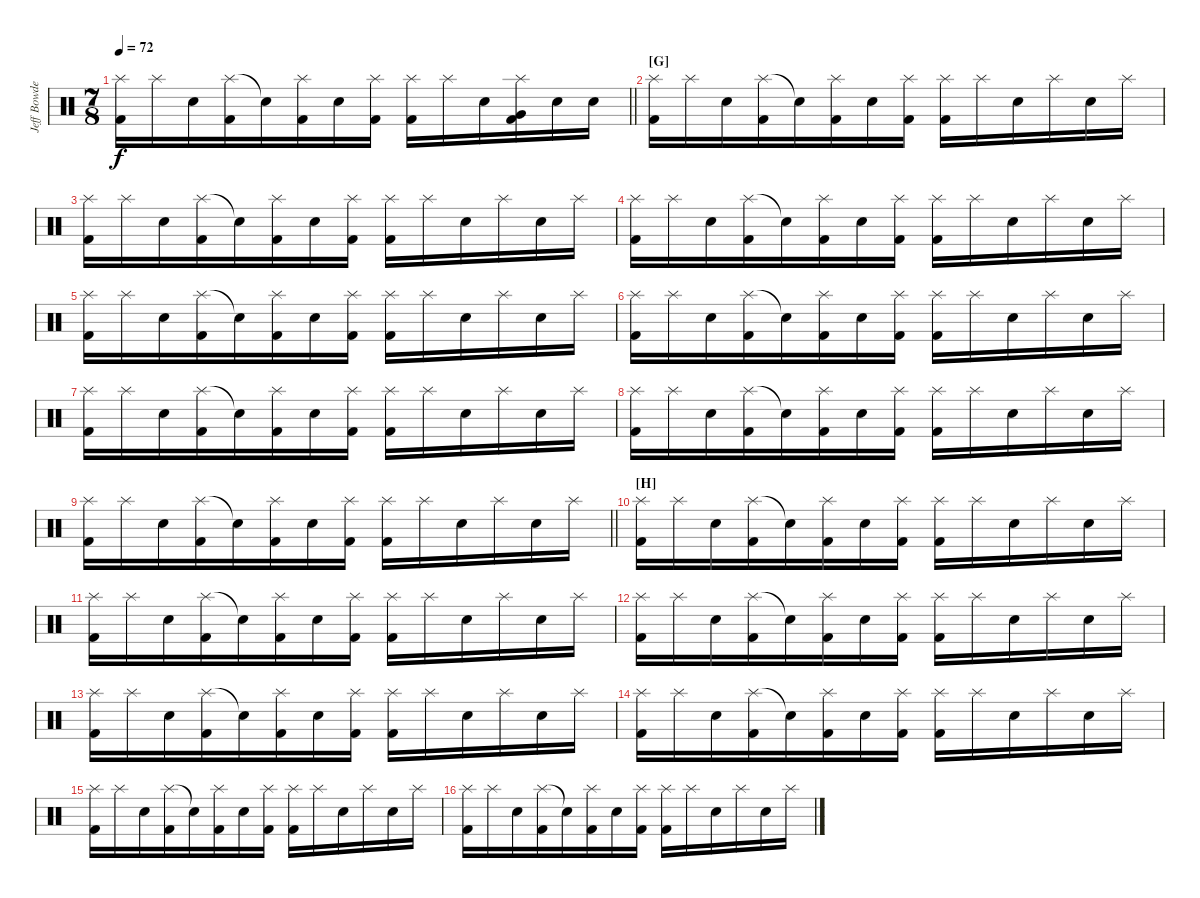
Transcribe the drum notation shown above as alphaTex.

\track ("Jeff Bowders" "Jeff Bowde") {instrument percussion}
\staff {score}
\articulation defaults
\ts (7 8)
\tempo 72
\clef neutral
\barLineRight lightlight
\ks aminor
("Splash (hit)" "Kick (hit) 2").16{dy f} "Splash (hit)".16 "Electric Snare (hit)".16 ("Splash (hit)" "Kick (hit) 2").16 "Snare (hit)"{t}.16 ("Splash (hit)" "Kick (hit) 2").16 "Electric Snare (hit)".16 ("Splash (hit)" "Kick (hit) 2").16 ("Splash (hit)" "Kick (hit) 2").16 "Splash (hit)".16 "Electric Snare (hit)".16 ("Splash (hit)" "Very Low Tom (hit)" "Kick (hit) 2").16 "Electric Snare (hit)".16 "Electric Snare (hit)".16 |
\section ("" "[G]")
("Splash (hit)" "Kick (hit) 2").16 "Splash (hit)".16 "Electric Snare (hit)".16 ("Splash (hit)" "Kick (hit) 2").16 "Snare (hit)"{t}.16 ("Splash (hit)" "Kick (hit) 2").16 "Electric Snare (hit)".16 ("Splash (hit)" "Kick (hit) 2").16 ("Splash (hit)" "Kick (hit) 2").16 "Splash (hit)".16 "Electric Snare (hit)".16 "Splash (hit)".16 "Electric Snare (hit)".16 "Splash (hit)".16 |
("Splash (hit)" "Kick (hit) 2").16 "Splash (hit)".16 "Electric Snare (hit)".16 ("Splash (hit)" "Kick (hit) 2").16 "Snare (hit)"{t}.16 ("Splash (hit)" "Kick (hit) 2").16 "Electric Snare (hit)".16 ("Splash (hit)" "Kick (hit) 2").16 ("Splash (hit)" "Kick (hit) 2").16 "Splash (hit)".16 "Electric Snare (hit)".16 "Splash (hit)".16 "Electric Snare (hit)".16 "Splash (hit)".16 |
("Splash (hit)" "Kick (hit) 2").16 "Splash (hit)".16 "Electric Snare (hit)".16 ("Splash (hit)" "Kick (hit) 2").16 "Snare (hit)"{t}.16 ("Splash (hit)" "Kick (hit) 2").16 "Electric Snare (hit)".16 ("Splash (hit)" "Kick (hit) 2").16 ("Splash (hit)" "Kick (hit) 2").16 "Splash (hit)".16 "Electric Snare (hit)".16 "Splash (hit)".16 "Electric Snare (hit)".16 "Splash (hit)".16 |
("Splash (hit)" "Kick (hit) 2").16 "Splash (hit)".16 "Electric Snare (hit)".16 ("Splash (hit)" "Kick (hit) 2").16 "Snare (hit)"{t}.16 ("Splash (hit)" "Kick (hit) 2").16 "Electric Snare (hit)".16 ("Splash (hit)" "Kick (hit) 2").16 ("Splash (hit)" "Kick (hit) 2").16 "Splash (hit)".16 "Electric Snare (hit)".16 "Splash (hit)".16 "Electric Snare (hit)".16 "Splash (hit)".16 |
("Splash (hit)" "Kick (hit) 2").16 "Splash (hit)".16 "Electric Snare (hit)".16 ("Splash (hit)" "Kick (hit) 2").16 "Snare (hit)"{t}.16 ("Splash (hit)" "Kick (hit) 2").16 "Electric Snare (hit)".16 ("Splash (hit)" "Kick (hit) 2").16 ("Splash (hit)" "Kick (hit) 2").16 "Splash (hit)".16 "Electric Snare (hit)".16 "Splash (hit)".16 "Electric Snare (hit)".16 "Splash (hit)".16 |
("Splash (hit)" "Kick (hit) 2").16 "Splash (hit)".16 "Electric Snare (hit)".16 ("Splash (hit)" "Kick (hit) 2").16 "Snare (hit)"{t}.16 ("Splash (hit)" "Kick (hit) 2").16 "Electric Snare (hit)".16 ("Splash (hit)" "Kick (hit) 2").16 ("Splash (hit)" "Kick (hit) 2").16 "Splash (hit)".16 "Electric Snare (hit)".16 "Splash (hit)".16 "Electric Snare (hit)".16 "Splash (hit)".16 |
("Splash (hit)" "Kick (hit) 2").16 "Splash (hit)".16 "Electric Snare (hit)".16 ("Splash (hit)" "Kick (hit) 2").16 "Snare (hit)"{t}.16 ("Splash (hit)" "Kick (hit) 2").16 "Electric Snare (hit)".16 ("Splash (hit)" "Kick (hit) 2").16 ("Splash (hit)" "Kick (hit) 2").16 "Splash (hit)".16 "Electric Snare (hit)".16 "Splash (hit)".16 "Electric Snare (hit)".16 "Splash (hit)".16 |
\barLineRight lightlight
("Splash (hit)" "Kick (hit) 2").16 "Splash (hit)".16 "Electric Snare (hit)".16 ("Splash (hit)" "Kick (hit) 2").16 "Snare (hit)"{t}.16 ("Splash (hit)" "Kick (hit) 2").16 "Electric Snare (hit)".16 ("Splash (hit)" "Kick (hit) 2").16 ("Splash (hit)" "Kick (hit) 2").16 "Splash (hit)".16 "Electric Snare (hit)".16 "Splash (hit)".16 "Electric Snare (hit)".16 "Splash (hit)".16 |
\section ("" "[H]")
("Splash (hit)" "Kick (hit) 2").16 "Splash (hit)".16 "Electric Snare (hit)".16 ("Splash (hit)" "Kick (hit) 2").16 "Snare (hit)"{t}.16 ("Splash (hit)" "Kick (hit) 2").16 "Electric Snare (hit)".16 ("Splash (hit)" "Kick (hit) 2").16 ("Splash (hit)" "Kick (hit) 2").16 "Splash (hit)".16 "Electric Snare (hit)".16 "Splash (hit)".16 "Electric Snare (hit)".16 "Splash (hit)".16 |
("Splash (hit)" "Kick (hit) 2").16 "Splash (hit)".16 "Electric Snare (hit)".16 ("Splash (hit)" "Kick (hit) 2").16 "Snare (hit)"{t}.16 ("Splash (hit)" "Kick (hit) 2").16 "Electric Snare (hit)".16 ("Splash (hit)" "Kick (hit) 2").16 ("Splash (hit)" "Kick (hit) 2").16 "Splash (hit)".16 "Electric Snare (hit)".16 "Splash (hit)".16 "Electric Snare (hit)".16 "Splash (hit)".16 |
("Splash (hit)" "Kick (hit) 2").16 "Splash (hit)".16 "Electric Snare (hit)".16 ("Splash (hit)" "Kick (hit) 2").16 "Snare (hit)"{t}.16 ("Splash (hit)" "Kick (hit) 2").16 "Electric Snare (hit)".16 ("Splash (hit)" "Kick (hit) 2").16 ("Splash (hit)" "Kick (hit) 2").16 "Splash (hit)".16 "Electric Snare (hit)".16 "Splash (hit)".16 "Electric Snare (hit)".16 "Splash (hit)".16 |
("Splash (hit)" "Kick (hit) 2").16 "Splash (hit)".16 "Electric Snare (hit)".16 ("Splash (hit)" "Kick (hit) 2").16 "Snare (hit)"{t}.16 ("Splash (hit)" "Kick (hit) 2").16 "Electric Snare (hit)".16 ("Splash (hit)" "Kick (hit) 2").16 ("Splash (hit)" "Kick (hit) 2").16 "Splash (hit)".16 "Electric Snare (hit)".16 "Splash (hit)".16 "Electric Snare (hit)".16 "Splash (hit)".16 |
("Splash (hit)" "Kick (hit) 2").16 "Splash (hit)".16 "Electric Snare (hit)".16 ("Splash (hit)" "Kick (hit) 2").16 "Snare (hit)"{t}.16 ("Splash (hit)" "Kick (hit) 2").16 "Electric Snare (hit)".16 ("Splash (hit)" "Kick (hit) 2").16 ("Splash (hit)" "Kick (hit) 2").16 "Splash (hit)".16 "Electric Snare (hit)".16 "Splash (hit)".16 "Electric Snare (hit)".16 "Splash (hit)".16 |
("Splash (hit)" "Kick (hit) 2").16 "Splash (hit)".16 "Electric Snare (hit)".16 ("Splash (hit)" "Kick (hit) 2").16 "Snare (hit)"{t}.16 ("Splash (hit)" "Kick (hit) 2").16 "Electric Snare (hit)".16 ("Splash (hit)" "Kick (hit) 2").16 ("Splash (hit)" "Kick (hit) 2").16 "Splash (hit)".16 "Electric Snare (hit)".16 "Splash (hit)".16 "Electric Snare (hit)".16 "Splash (hit)".16 |
("Splash (hit)" "Kick (hit) 2").16 "Splash (hit)".16 "Electric Snare (hit)".16 ("Splash (hit)" "Kick (hit) 2").16 "Snare (hit)"{t}.16 ("Splash (hit)" "Kick (hit) 2").16 "Electric Snare (hit)".16 ("Splash (hit)" "Kick (hit) 2").16 ("Splash (hit)" "Kick (hit) 2").16 "Splash (hit)".16 "Electric Snare (hit)".16 "Splash (hit)".16 "Electric Snare (hit)".16 "Splash (hit)".16
